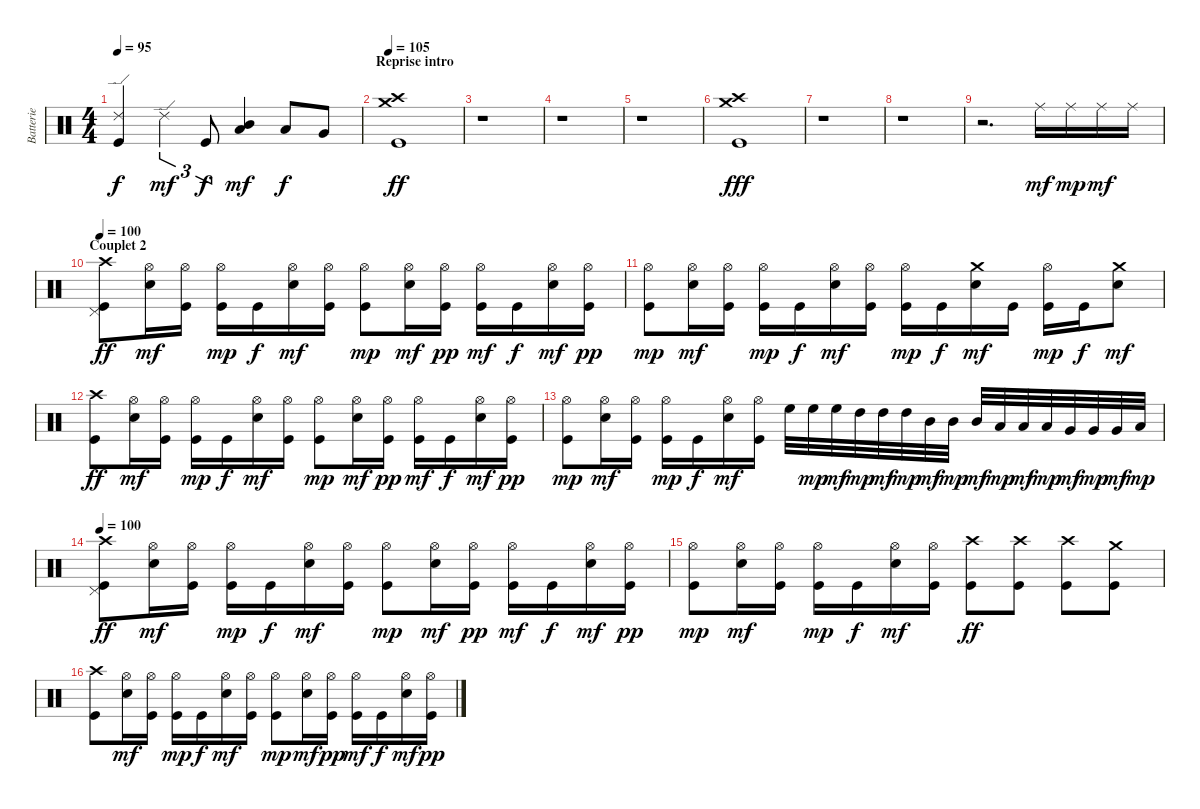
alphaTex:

\track ("Batterie" "Batterie") {instrument percussion}
\staff {score}
\articulation defaults
\ts (4 4)
\tempo 95
\clef neutral
\ks c
("Ride (edge) 2" "Kick (hit)").4{dy f} "Ride (edge) 2".4{tu (3 2) dy mf} "Kick (hit)".8{tu (3 2) dy f} ("Mid Tom (hit)" "Low Tom (hit)").4{bd 120 dy mf} "Low Tom (hit)".8{dy f} "Very Low Tom (hit)".8 |
\section ("" "Reprise intro")
\tempo 105
("Crash medium (hit)" "Crash high (hit)" "Kick (hit)").1{dy ff} |
r.1 |
r.1 |
r.1 |
("Crash high (hit)" "Crash medium (hit)" "Kick (hit)").1{dy fff} |
r.1 |
r.1 |
r.2{d} "Ride (middle)".16{dy mf} "Ride (middle)".16{dy mp} "Ride (middle)".16{dy mf} "Ride (middle)".16 |
\section ("" "Couplet 2")
\tempo 100
("Crash high (hit)" "Pedal Hi-Hat (hit)" "Kick (hit)").8{dy ff} ("Hi-Hat (open)" "Electric Snare (hit)").16{dy mf} ("Hi-Hat (open)" "Kick (hit)").16 ("Hi-Hat (open)" "Kick (hit)").16{dy mp} "Kick (hit)".16{dy f} ("Hi-Hat (open)" "Electric Snare (hit)").16{dy mf} ("Hi-Hat (open)" "Kick (hit)").16 ("Hi-Hat (open)" "Kick (hit)").8{dy mp} ("Hi-Hat (open)" "Electric Snare (hit)").16{dy mf} ("Hi-Hat (open)" "Kick (hit)").16{dy pp} ("Hi-Hat (open)" "Kick (hit)").16{dy mf} "Kick (hit)".16{dy f} ("Hi-Hat (open)" "Electric Snare (hit)").16{dy mf} ("Hi-Hat (open)" "Kick (hit)").16{dy pp} |
("Hi-Hat (open)" "Kick (hit)").8{dy mp} ("Hi-Hat (open)" "Electric Snare (hit)").16{dy mf} ("Hi-Hat (open)" "Kick (hit)").16 ("Hi-Hat (open)" "Kick (hit)").16{dy mp} "Kick (hit)".16{dy f} ("Hi-Hat (open)" "Electric Snare (hit)").16{dy mf} ("Hi-Hat (open)" "Kick (hit)").16 ("Hi-Hat (open)" "Kick (hit)").16{dy mp} "Kick (hit)".16{dy f} ("Crash medium (hit)" "Electric Snare (hit)").16{dy mf} "Kick (hit)".16 ("Hi-Hat (open)" "Kick (hit)").16{dy mp} "Kick (hit)".16{dy f} ("Crash medium (hit)" "Electric Snare (hit)").8{dy mf} |
("Crash high (hit)" "Kick (hit)").8{dy ff} ("Hi-Hat (open)" "Electric Snare (hit)").16{dy mf} ("Hi-Hat (open)" "Kick (hit)").16 ("Hi-Hat (open)" "Kick (hit)").16{dy mp} "Kick (hit)".16{dy f} ("Hi-Hat (open)" "Electric Snare (hit)").16{dy mf} ("Hi-Hat (open)" "Kick (hit)").16 ("Hi-Hat (open)" "Kick (hit)").8{dy mp} ("Hi-Hat (open)" "Electric Snare (hit)").16{dy mf} ("Hi-Hat (open)" "Kick (hit)").16{dy pp} ("Hi-Hat (open)" "Kick (hit)").16{dy mf} "Kick (hit)".16{dy f} ("Hi-Hat (open)" "Electric Snare (hit)").16{dy mf} ("Hi-Hat (open)" "Kick (hit)").16{dy pp} |
("Hi-Hat (open)" "Kick (hit)").8{dy mp} ("Hi-Hat (open)" "Electric Snare (hit)").16{dy mf} ("Hi-Hat (open)" "Kick (hit)").16 ("Hi-Hat (open)" "Kick (hit)").16{dy mp} "Kick (hit)".16{dy f} ("Hi-Hat (open)" "Electric Snare (hit)").16{dy mf} ("Hi-Hat (open)" "Kick (hit)").16 "High Floor Tom (hit)".32 "High Floor Tom (hit)".32{dy mp} "High Floor Tom (hit)".32{dy mf} "High Tom (hit)".32{dy mp} "High Tom (hit)".32{dy mf} "High Tom (hit)".32{dy mp} "Mid Tom (hit)".32{dy mf} "Mid Tom (hit)".32{dy mp} "Mid Tom (hit)".32{dy mf} "Low Tom (hit)".32{dy mp} "Low Tom (hit)".32{dy mf} "Low Tom (hit)".32{dy mp} "Very Low Tom (hit)".32{dy mf} "Very Low Tom (hit)".32{dy mp} "Very Low Tom (hit)".32{dy mf} "Low Floor Tom (hit)".32{dy mp} |
\tempo 100
("Crash high (hit)" "Pedal Hi-Hat (hit)" "Kick (hit)").8{dy ff} ("Hi-Hat (open)" "Electric Snare (hit)").16{dy mf} ("Hi-Hat (open)" "Kick (hit)").16 ("Hi-Hat (open)" "Kick (hit)").16{dy mp} "Kick (hit)".16{dy f} ("Hi-Hat (open)" "Electric Snare (hit)").16{dy mf} ("Hi-Hat (open)" "Kick (hit)").16 ("Hi-Hat (open)" "Kick (hit)").8{dy mp} ("Hi-Hat (open)" "Electric Snare (hit)").16{dy mf} ("Hi-Hat (open)" "Kick (hit)").16{dy pp} ("Hi-Hat (open)" "Kick (hit)").16{dy mf} "Kick (hit)".16{dy f} ("Hi-Hat (open)" "Electric Snare (hit)").16{dy mf} ("Hi-Hat (open)" "Kick (hit)").16{dy pp} |
("Hi-Hat (open)" "Kick (hit)").8{dy mp} ("Hi-Hat (open)" "Electric Snare (hit)").16{dy mf} ("Hi-Hat (open)" "Kick (hit)").16 ("Hi-Hat (open)" "Kick (hit)").16{dy mp} "Kick (hit)".16{dy f} ("Hi-Hat (open)" "Electric Snare (hit)").16{dy mf} ("Hi-Hat (open)" "Kick (hit)").16 ("Crash high (hit)" "Kick (hit)").8{dy ff} ("Crash high (hit)" "Kick (hit)").8 ("Crash high (hit)" "Kick (hit)").8 ("Crash medium (hit)" "Kick (hit)").8 |
("Crash high (hit)" "Kick (hit)").8 ("Hi-Hat (open)" "Electric Snare (hit)").16{dy mf} ("Hi-Hat (open)" "Kick (hit)").16 ("Hi-Hat (open)" "Kick (hit)").16{dy mp} "Kick (hit)".16{dy f} ("Hi-Hat (open)" "Electric Snare (hit)").16{dy mf} ("Hi-Hat (open)" "Kick (hit)").16 ("Hi-Hat (open)" "Kick (hit)").8{dy mp} ("Hi-Hat (open)" "Electric Snare (hit)").16{dy mf} ("Hi-Hat (open)" "Kick (hit)").16{dy pp} ("Hi-Hat (open)" "Kick (hit)").16{dy mf} "Kick (hit)".16{dy f} ("Hi-Hat (open)" "Electric Snare (hit)").16{dy mf} ("Hi-Hat (open)" "Kick (hit)").16{dy pp}
